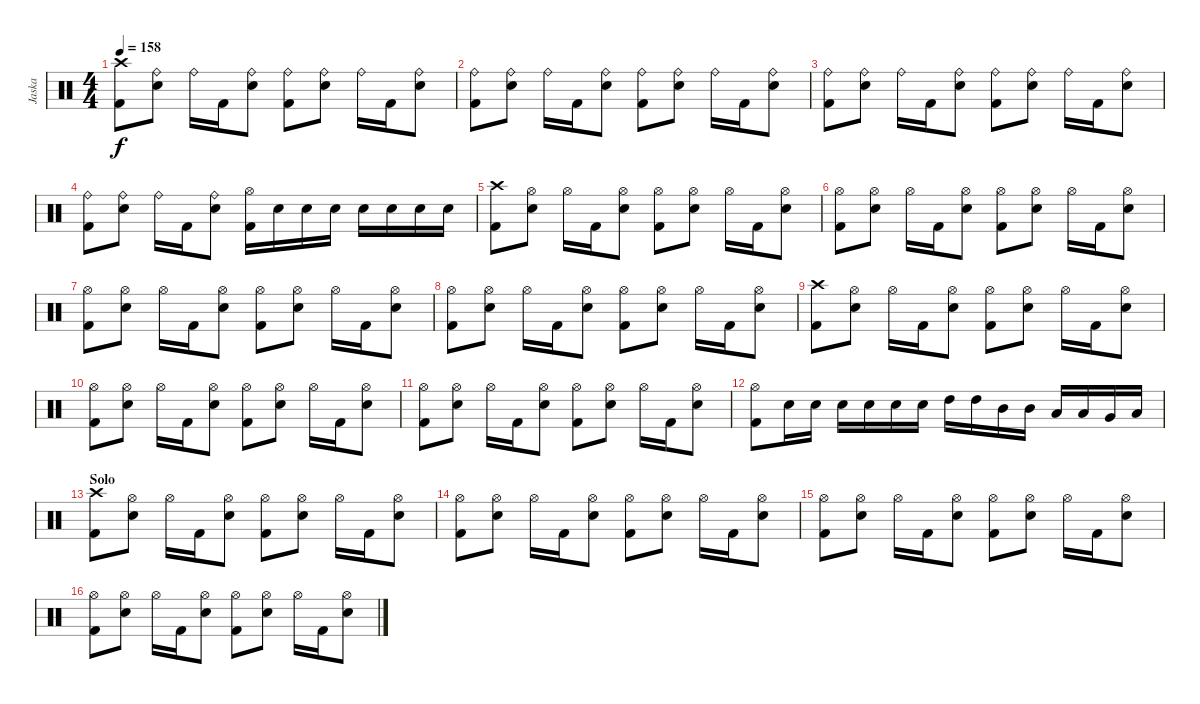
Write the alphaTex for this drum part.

\track ("Jaska" "Jaska") {instrument percussion}
\staff {score}
\articulation defaults
\ts (4 4)
\tempo 158
\clef neutral
\ks c
("Crash high (hit)" "Kick (hit) 2").8{dy f} ("Ride (bell)" "Electric Snare (hit)").8 "Ride (bell)".16 "Kick (hit) 2".16 ("Ride (bell)" "Electric Snare (hit)").8 ("Ride (bell)" "Kick (hit) 2").8 ("Ride (bell)" "Electric Snare (hit)").8 "Ride (bell)".16 "Kick (hit) 2".16 ("Ride (bell)" "Electric Snare (hit)").8 |
("Ride (bell)" "Kick (hit) 2").8 ("Ride (bell)" "Electric Snare (hit)").8 "Ride (bell)".16 "Kick (hit) 2".16 ("Ride (bell)" "Electric Snare (hit)").8 ("Ride (bell)" "Kick (hit) 2").8 ("Ride (bell)" "Electric Snare (hit)").8 "Ride (bell)".16 "Kick (hit) 2".16 ("Ride (bell)" "Electric Snare (hit)").8 |
("Ride (bell)" "Kick (hit) 2").8 ("Ride (bell)" "Electric Snare (hit)").8 "Ride (bell)".16 "Kick (hit) 2".16 ("Ride (bell)" "Electric Snare (hit)").8 ("Ride (bell)" "Kick (hit) 2").8 ("Ride (bell)" "Electric Snare (hit)").8 "Ride (bell)".16 "Kick (hit) 2".16 ("Ride (bell)" "Electric Snare (hit)").8 |
("Ride (bell)" "Kick (hit) 2").8 ("Ride (bell)" "Electric Snare (hit)").8 "Ride (bell)".16 "Kick (hit) 2".16 ("Ride (bell)" "Electric Snare (hit)").8 ("Hi-Hat (open)" "Kick (hit) 2").16 "Electric Snare (hit)".16 "Electric Snare (hit)".16 "Electric Snare (hit)".16 "Electric Snare (hit)".16 "Electric Snare (hit)".16 "Electric Snare (hit)".16 "Electric Snare (hit)".16 |
("Crash high (hit)" "Kick (hit) 2").8 ("Hi-Hat (open)" "Electric Snare (hit)").8 "Hi-Hat (open)".16 "Kick (hit) 2".16 ("Hi-Hat (open)" "Electric Snare (hit)").8 ("Hi-Hat (open)" "Kick (hit) 2").8 ("Hi-Hat (open)" "Electric Snare (hit)").8 "Hi-Hat (open)".16 "Kick (hit) 2".16 ("Hi-Hat (open)" "Electric Snare (hit)").8 |
("Hi-Hat (open)" "Kick (hit) 2").8 ("Hi-Hat (open)" "Electric Snare (hit)").8 "Hi-Hat (open)".16 "Kick (hit) 2".16 ("Hi-Hat (open)" "Electric Snare (hit)").8 ("Hi-Hat (open)" "Kick (hit) 2").8 ("Hi-Hat (open)" "Electric Snare (hit)").8 "Hi-Hat (open)".16 "Kick (hit) 2".16 ("Hi-Hat (open)" "Electric Snare (hit)").8 |
("Hi-Hat (open)" "Kick (hit) 2").8 ("Hi-Hat (open)" "Electric Snare (hit)").8 "Hi-Hat (open)".16 "Kick (hit) 2".16 ("Hi-Hat (open)" "Electric Snare (hit)").8 ("Hi-Hat (open)" "Kick (hit) 2").8 ("Hi-Hat (open)" "Electric Snare (hit)").8 "Hi-Hat (open)".16 "Kick (hit) 2".16 ("Hi-Hat (open)" "Electric Snare (hit)").8 |
("Hi-Hat (open)" "Kick (hit) 2").8 ("Hi-Hat (open)" "Electric Snare (hit)").8 "Hi-Hat (open)".16 "Kick (hit) 2".16 ("Hi-Hat (open)" "Electric Snare (hit)").8 ("Hi-Hat (open)" "Kick (hit) 2").8 ("Hi-Hat (open)" "Electric Snare (hit)").8 "Hi-Hat (open)".16 "Kick (hit) 2".16 ("Hi-Hat (open)" "Electric Snare (hit)").8 |
("Crash high (hit)" "Kick (hit) 2").8 ("Hi-Hat (open)" "Electric Snare (hit)").8 "Hi-Hat (open)".16 "Kick (hit) 2".16 ("Hi-Hat (open)" "Electric Snare (hit)").8 ("Hi-Hat (open)" "Kick (hit) 2").8 ("Hi-Hat (open)" "Electric Snare (hit)").8 "Hi-Hat (open)".16 "Kick (hit) 2".16 ("Hi-Hat (open)" "Electric Snare (hit)").8 |
("Hi-Hat (open)" "Kick (hit) 2").8 ("Hi-Hat (open)" "Electric Snare (hit)").8 "Hi-Hat (open)".16 "Kick (hit) 2".16 ("Hi-Hat (open)" "Electric Snare (hit)").8 ("Hi-Hat (open)" "Kick (hit) 2").8 ("Hi-Hat (open)" "Electric Snare (hit)").8 "Hi-Hat (open)".16 "Kick (hit) 2".16 ("Hi-Hat (open)" "Electric Snare (hit)").8 |
("Hi-Hat (open)" "Kick (hit) 2").8 ("Hi-Hat (open)" "Electric Snare (hit)").8 "Hi-Hat (open)".16 "Kick (hit) 2".16 ("Hi-Hat (open)" "Electric Snare (hit)").8 ("Hi-Hat (open)" "Kick (hit) 2").8 ("Hi-Hat (open)" "Electric Snare (hit)").8 "Hi-Hat (open)".16 "Kick (hit) 2".16 ("Hi-Hat (open)" "Electric Snare (hit)").8 |
("Hi-Hat (open)" "Kick (hit) 2").8 "Electric Snare (hit)".16 "Electric Snare (hit)".16 "Electric Snare (hit)".16 "Electric Snare (hit)".16 "Electric Snare (hit)".16 "Electric Snare (hit)".16 "High Tom (hit)".16{balance 0} "High Tom (hit)".16{balance 2} "Mid Tom (hit)".16{balance 4} "Mid Tom (hit)".16{balance 6} "Low Tom (hit)".16{balance 10} "Low Tom (hit)".16{balance 12} "Very Low Tom (hit)".16{balance 14} "Low Floor Tom (hit)".16{balance 16} |
\section ("" "Solo")
("Crash high (hit)" "Kick (hit) 2").8{balance 8} ("Hi-Hat (open)" "Electric Snare (hit)").8 "Hi-Hat (open)".16 "Kick (hit) 2".16 ("Hi-Hat (open)" "Electric Snare (hit)").8 ("Hi-Hat (open)" "Kick (hit) 2").8 ("Hi-Hat (open)" "Electric Snare (hit)").8 "Hi-Hat (open)".16 "Kick (hit) 2".16 ("Hi-Hat (open)" "Electric Snare (hit)").8 |
("Hi-Hat (open)" "Kick (hit) 2").8 ("Hi-Hat (open)" "Electric Snare (hit)").8 "Hi-Hat (open)".16 "Kick (hit) 2".16 ("Hi-Hat (open)" "Electric Snare (hit)").8 ("Hi-Hat (open)" "Kick (hit) 2").8 ("Hi-Hat (open)" "Electric Snare (hit)").8 "Hi-Hat (open)".16 "Kick (hit) 2".16 ("Hi-Hat (open)" "Electric Snare (hit)").8 |
("Hi-Hat (open)" "Kick (hit) 2").8 ("Hi-Hat (open)" "Electric Snare (hit)").8 "Hi-Hat (open)".16 "Kick (hit) 2".16 ("Hi-Hat (open)" "Electric Snare (hit)").8 ("Hi-Hat (open)" "Kick (hit) 2").8 ("Hi-Hat (open)" "Electric Snare (hit)").8 "Hi-Hat (open)".16 "Kick (hit) 2".16 ("Hi-Hat (open)" "Electric Snare (hit)").8 |
("Hi-Hat (open)" "Kick (hit) 2").8 ("Hi-Hat (open)" "Electric Snare (hit)").8 "Hi-Hat (open)".16 "Kick (hit) 2".16 ("Hi-Hat (open)" "Electric Snare (hit)").8 ("Hi-Hat (open)" "Kick (hit) 2").8 ("Hi-Hat (open)" "Electric Snare (hit)").8 "Hi-Hat (open)".16 "Kick (hit) 2".16 ("Hi-Hat (open)" "Electric Snare (hit)").8
